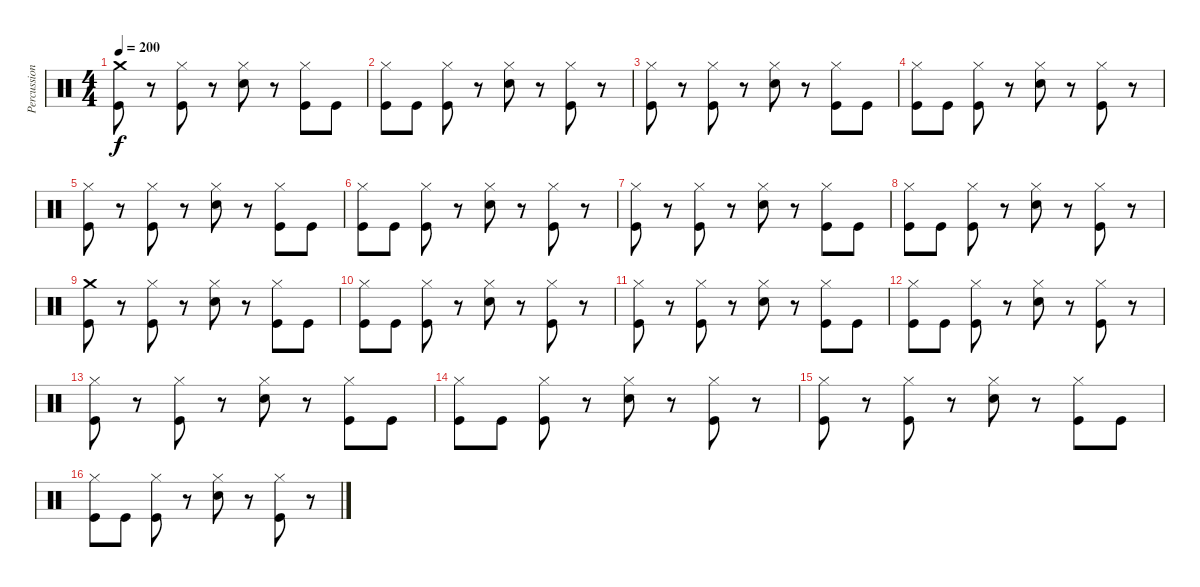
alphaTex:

\track ("Percussion" "Percussion") {instrument percussion}
\staff {score}
\articulation defaults
\ts (4 4)
\tempo 200
\clef neutral
\ks c
("Crash medium (hit)" "Kick (hit)").8{dy f} r.8 ("Hi-Hat (closed)" "Kick (hit)").8 r.8 ("Hi-Hat (closed)" "Snare (hit) 2").8 r.8 ("Hi-Hat (closed)" "Kick (hit)").8 "Kick (hit)".8 |
("Hi-Hat (closed)" "Kick (hit)").8 "Kick (hit)".8 ("Hi-Hat (closed)" "Kick (hit)").8 r.8 ("Hi-Hat (closed)" "Snare (hit) 2").8 r.8 ("Hi-Hat (closed)" "Kick (hit)").8 r.8 |
("Hi-Hat (closed)" "Kick (hit)").8 r.8 ("Hi-Hat (closed)" "Kick (hit)").8 r.8 ("Hi-Hat (closed)" "Snare (hit) 2").8 r.8 ("Hi-Hat (closed)" "Kick (hit)").8 "Kick (hit)".8 |
("Hi-Hat (closed)" "Kick (hit)").8 "Kick (hit)".8 ("Hi-Hat (closed)" "Kick (hit)").8 r.8 ("Hi-Hat (closed)" "Snare (hit) 2").8 r.8 ("Hi-Hat (closed)" "Kick (hit)").8 r.8 |
("Hi-Hat (closed)" "Kick (hit)").8 r.8 ("Hi-Hat (closed)" "Kick (hit)").8 r.8 ("Hi-Hat (closed)" "Snare (hit) 2").8 r.8 ("Hi-Hat (closed)" "Kick (hit)").8 "Kick (hit)".8 |
("Hi-Hat (closed)" "Kick (hit)").8 "Kick (hit)".8 ("Hi-Hat (closed)" "Kick (hit)").8 r.8 ("Hi-Hat (closed)" "Snare (hit) 2").8 r.8 ("Hi-Hat (closed)" "Kick (hit)").8 r.8 |
("Hi-Hat (closed)" "Kick (hit)").8 r.8 ("Hi-Hat (closed)" "Kick (hit)").8 r.8 ("Hi-Hat (closed)" "Snare (hit) 2").8 r.8 ("Hi-Hat (closed)" "Kick (hit)").8 "Kick (hit)".8 |
("Hi-Hat (closed)" "Kick (hit)").8 "Kick (hit)".8 ("Hi-Hat (closed)" "Kick (hit)").8 r.8 ("Hi-Hat (closed)" "Snare (hit) 2").8 r.8 ("Hi-Hat (closed)" "Kick (hit)").8 r.8 |
("Crash medium (hit)" "Kick (hit)").8 r.8 ("Hi-Hat (closed)" "Kick (hit)").8 r.8 ("Hi-Hat (closed)" "Snare (hit) 2").8 r.8 ("Hi-Hat (closed)" "Kick (hit)").8 "Kick (hit)".8 |
("Hi-Hat (closed)" "Kick (hit)").8 "Kick (hit)".8 ("Hi-Hat (closed)" "Kick (hit)").8 r.8 ("Hi-Hat (closed)" "Snare (hit) 2").8 r.8 ("Hi-Hat (closed)" "Kick (hit)").8 r.8 |
("Hi-Hat (closed)" "Kick (hit)").8 r.8 ("Hi-Hat (closed)" "Kick (hit)").8 r.8 ("Hi-Hat (closed)" "Snare (hit) 2").8 r.8 ("Hi-Hat (closed)" "Kick (hit)").8 "Kick (hit)".8 |
("Hi-Hat (closed)" "Kick (hit)").8 "Kick (hit)".8 ("Hi-Hat (closed)" "Kick (hit)").8 r.8 ("Hi-Hat (closed)" "Snare (hit) 2").8 r.8 ("Hi-Hat (closed)" "Kick (hit)").8 r.8 |
("Hi-Hat (closed)" "Kick (hit)").8 r.8 ("Hi-Hat (closed)" "Kick (hit)").8 r.8 ("Hi-Hat (closed)" "Snare (hit) 2").8 r.8 ("Hi-Hat (closed)" "Kick (hit)").8 "Kick (hit)".8 |
("Hi-Hat (closed)" "Kick (hit)").8 "Kick (hit)".8 ("Hi-Hat (closed)" "Kick (hit)").8 r.8 ("Hi-Hat (closed)" "Snare (hit) 2").8 r.8 ("Hi-Hat (closed)" "Kick (hit)").8 r.8 |
("Hi-Hat (closed)" "Kick (hit)").8 r.8 ("Hi-Hat (closed)" "Kick (hit)").8 r.8 ("Hi-Hat (closed)" "Snare (hit) 2").8 r.8 ("Hi-Hat (closed)" "Kick (hit)").8 "Kick (hit)".8 |
("Hi-Hat (closed)" "Kick (hit)").8 "Kick (hit)".8 ("Hi-Hat (closed)" "Kick (hit)").8 r.8 ("Hi-Hat (closed)" "Snare (hit) 2").8 r.8 ("Hi-Hat (closed)" "Kick (hit)").8 r.8
